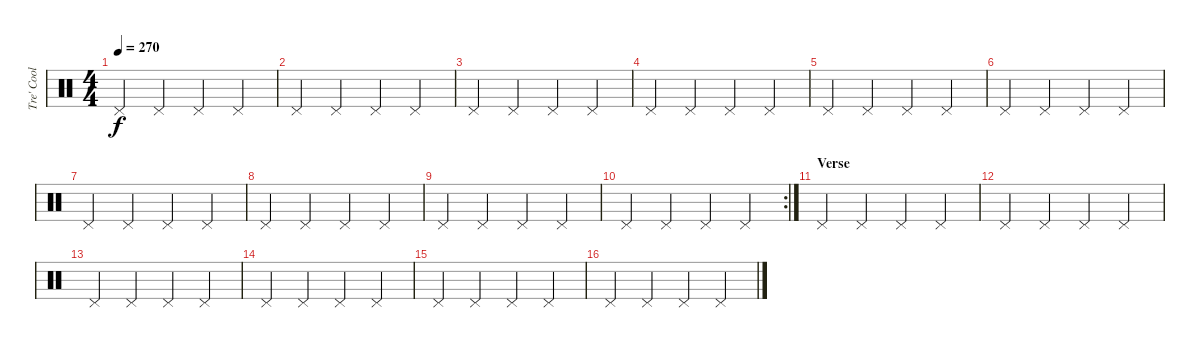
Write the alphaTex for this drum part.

\track ("Tre' Cool" "Tre' Cool") {instrument percussion}
\staff {score}
\articulation defaults
\ts (4 4)
\tempo 270
\clef neutral
\ks c "Pedal Hi-Hat (hit)".4{dy f} "Pedal Hi-Hat (hit)".4 "Pedal Hi-Hat (hit)".4 "Pedal Hi-Hat (hit)".4
|
"Pedal Hi-Hat (hit)".4 "Pedal Hi-Hat (hit)".4 "Pedal Hi-Hat (hit)".4 "Pedal Hi-Hat (hit)".4 |
"Pedal Hi-Hat (hit)".4 "Pedal Hi-Hat (hit)".4 "Pedal Hi-Hat (hit)".4 "Pedal Hi-Hat (hit)".4 |
"Pedal Hi-Hat (hit)".4 "Pedal Hi-Hat (hit)".4 "Pedal Hi-Hat (hit)".4 "Pedal Hi-Hat (hit)".4 |
"Pedal Hi-Hat (hit)".4 "Pedal Hi-Hat (hit)".4 "Pedal Hi-Hat (hit)".4 "Pedal Hi-Hat (hit)".4 |
"Pedal Hi-Hat (hit)".4 "Pedal Hi-Hat (hit)".4 "Pedal Hi-Hat (hit)".4 "Pedal Hi-Hat (hit)".4 |
"Pedal Hi-Hat (hit)".4 "Pedal Hi-Hat (hit)".4 "Pedal Hi-Hat (hit)".4 "Pedal Hi-Hat (hit)".4 |
"Pedal Hi-Hat (hit)".4 "Pedal Hi-Hat (hit)".4 "Pedal Hi-Hat (hit)".4 "Pedal Hi-Hat (hit)".4 |
"Pedal Hi-Hat (hit)".4 "Pedal Hi-Hat (hit)".4 "Pedal Hi-Hat (hit)".4 "Pedal Hi-Hat (hit)".4 |
\rc 2 "Pedal Hi-Hat (hit)".4 "Pedal Hi-Hat (hit)".4 "Pedal Hi-Hat (hit)".4 "Pedal Hi-Hat (hit)".4
|
\section ("" "Verse")
"Pedal Hi-Hat (hit)".4 "Pedal Hi-Hat (hit)".4 "Pedal Hi-Hat (hit)".4 "Pedal Hi-Hat (hit)".4 |
"Pedal Hi-Hat (hit)".4 "Pedal Hi-Hat (hit)".4 "Pedal Hi-Hat (hit)".4 "Pedal Hi-Hat (hit)".4 |
"Pedal Hi-Hat (hit)".4 "Pedal Hi-Hat (hit)".4 "Pedal Hi-Hat (hit)".4 "Pedal Hi-Hat (hit)".4 |
"Pedal Hi-Hat (hit)".4 "Pedal Hi-Hat (hit)".4 "Pedal Hi-Hat (hit)".4 "Pedal Hi-Hat (hit)".4 |
"Pedal Hi-Hat (hit)".4 "Pedal Hi-Hat (hit)".4 "Pedal Hi-Hat (hit)".4 "Pedal Hi-Hat (hit)".4 |
"Pedal Hi-Hat (hit)".4 "Pedal Hi-Hat (hit)".4 "Pedal Hi-Hat (hit)".4 "Pedal Hi-Hat (hit)".4
